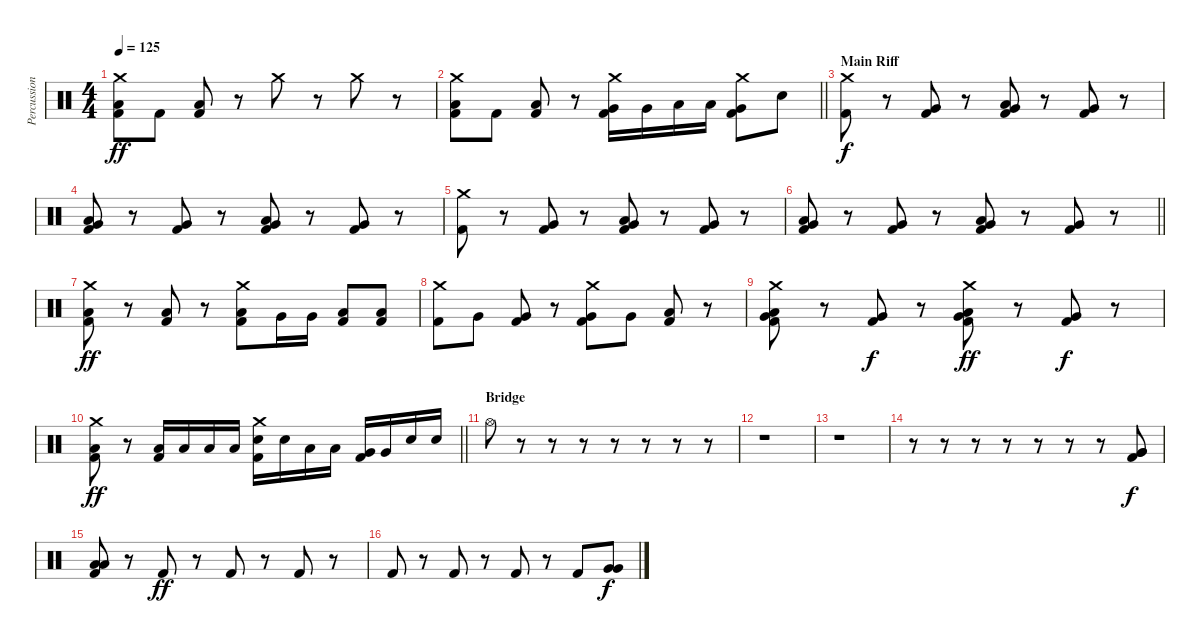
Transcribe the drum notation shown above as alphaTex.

\track ("Percussion" "Percussion") {instrument percussion}
\staff {score}
\articulation defaults
\ts (4 4)
\tempo 125
\clef neutral
\ks c
("Crash medium (hit)" "Low Floor Tom (hit)" "Kick (hit) 2").8{dy ff} "Kick (hit) 2".8 ("Low Floor Tom (hit)" "Kick (hit) 2").8 r.8 "Crash medium (hit)".8 r.8 "Crash medium (hit)".8 r.8 |
\barLineRight lightlight
("Crash medium (hit)" "Low Floor Tom (hit)" "Kick (hit) 2").8 "Kick (hit) 2".8 ("Low Floor Tom (hit)" "Kick (hit) 2").8 r.8 ("Crash medium (hit)" "Very Low Tom (hit)" "Kick (hit) 2").16 "Very Low Tom (hit)".16 "Low Floor Tom (hit)".16 "Low Floor Tom (hit)".16 ("Crash medium (hit)" "Very Low Tom (hit)" "Kick (hit) 2").8 "Electric Snare (hit)".8 |
\section ("" "Main Riff")
("Crash medium (hit)" "Kick (hit) 2").8{dy f} r.8 ("Very Low Tom (hit)" "Kick (hit) 2").8 r.8 ("Very Low Tom (hit)" "Low Floor Tom (hit)" "Kick (hit) 2").8 r.8 ("Very Low Tom (hit)" "Kick (hit) 2").8 r.8 |
("Very Low Tom (hit)" "Low Floor Tom (hit)" "Kick (hit) 2").8 r.8 ("Very Low Tom (hit)" "Kick (hit) 2").8 r.8 ("Very Low Tom (hit)" "Low Floor Tom (hit)" "Kick (hit) 2").8 r.8 ("Very Low Tom (hit)" "Kick (hit) 2").8 r.8 |
("Crash medium (hit)" "Kick (hit) 2").8 r.8 ("Very Low Tom (hit)" "Kick (hit) 2").8 r.8 ("Very Low Tom (hit)" "Low Floor Tom (hit)" "Kick (hit) 2").8 r.8 ("Very Low Tom (hit)" "Kick (hit) 2").8 r.8 |
\barLineRight lightlight
("Very Low Tom (hit)" "Low Floor Tom (hit)" "Kick (hit) 2").8 r.8 ("Very Low Tom (hit)" "Kick (hit) 2").8 r.8 ("Very Low Tom (hit)" "Low Floor Tom (hit)" "Kick (hit) 2").8 r.8 ("Very Low Tom (hit)" "Kick (hit) 2").8 r.8 |
("Crash medium (hit)" "Low Floor Tom (hit)" "Kick (hit) 2").8{dy ff} r.8 ("Low Floor Tom (hit)" "Kick (hit) 2").8 r.8 ("Crash medium (hit)" "Low Floor Tom (hit)" "Kick (hit) 2").8 "Very Low Tom (hit)".16 "Very Low Tom (hit)".16 ("Low Floor Tom (hit)" "Kick (hit) 2").8 ("Low Floor Tom (hit)" "Kick (hit) 2").8 |
("Crash medium (hit)" "Kick (hit) 2").8 "Very Low Tom (hit)".8 ("Very Low Tom (hit)" "Kick (hit) 2").8 r.8 ("Crash medium (hit)" "Very Low Tom (hit)" "Kick (hit) 2").8 "Very Low Tom (hit)".8 ("Low Floor Tom (hit)" "Kick (hit) 2").8 r.8 |
("Crash medium (hit)" "Very Low Tom (hit)" "Low Floor Tom (hit)" "Kick (hit) 2").8 r.8 ("Very Low Tom (hit)" "Kick (hit) 2").8{dy f} r.8 ("Crash medium (hit)" "Very Low Tom (hit)" "Low Floor Tom (hit)" "Kick (hit) 2").8{dy ff} r.8 ("Very Low Tom (hit)" "Kick (hit) 2").8{dy f} r.8 |
\barLineRight lightlight
("Crash medium (hit)" "Low Floor Tom (hit)" "Kick (hit) 2").8{dy ff} r.8 ("Low Floor Tom (hit)" "Kick (hit) 2").16 "Low Floor Tom (hit)".16 "Low Floor Tom (hit)".16 "Low Floor Tom (hit)".16 ("Crash medium (hit)" "Electric Snare (hit)" "Kick (hit) 2").16 "Electric Snare (hit)".16 "Low Floor Tom (hit)".16 "Low Floor Tom (hit)".16 ("Very Low Tom (hit)" "Kick (hit) 2").16 "Very Low Tom (hit)".16 "Electric Snare (hit)".16 "Electric Snare (hit)".16 |
\section ("" "Bridge")
"Hi-Hat (open)".8 r.8 r.8 r.8 r.8 r.8 r.8 r.8 |
r.1 |
r.1 |
r.8 r.8 r.8 r.8 r.8 r.8 r.8 ("Very Low Tom (hit)" "Very Low Tom (hit)" "Kick (hit) 2").8{dy f} |
("Low Floor Tom (hit)" "Low Floor Tom (hit)" "Kick (hit) 2").8 r.8 "Kick (hit) 2".8{dy ff} r.8 "Kick (hit) 2".8 r.8 "Kick (hit) 2".8 r.8 |
"Kick (hit) 2".8 r.8 "Kick (hit) 2".8 r.8 "Kick (hit) 2".8 r.8 "Kick (hit) 2".8 ("Very Low Tom (hit)" "Very Low Tom (hit)").8{dy f}
